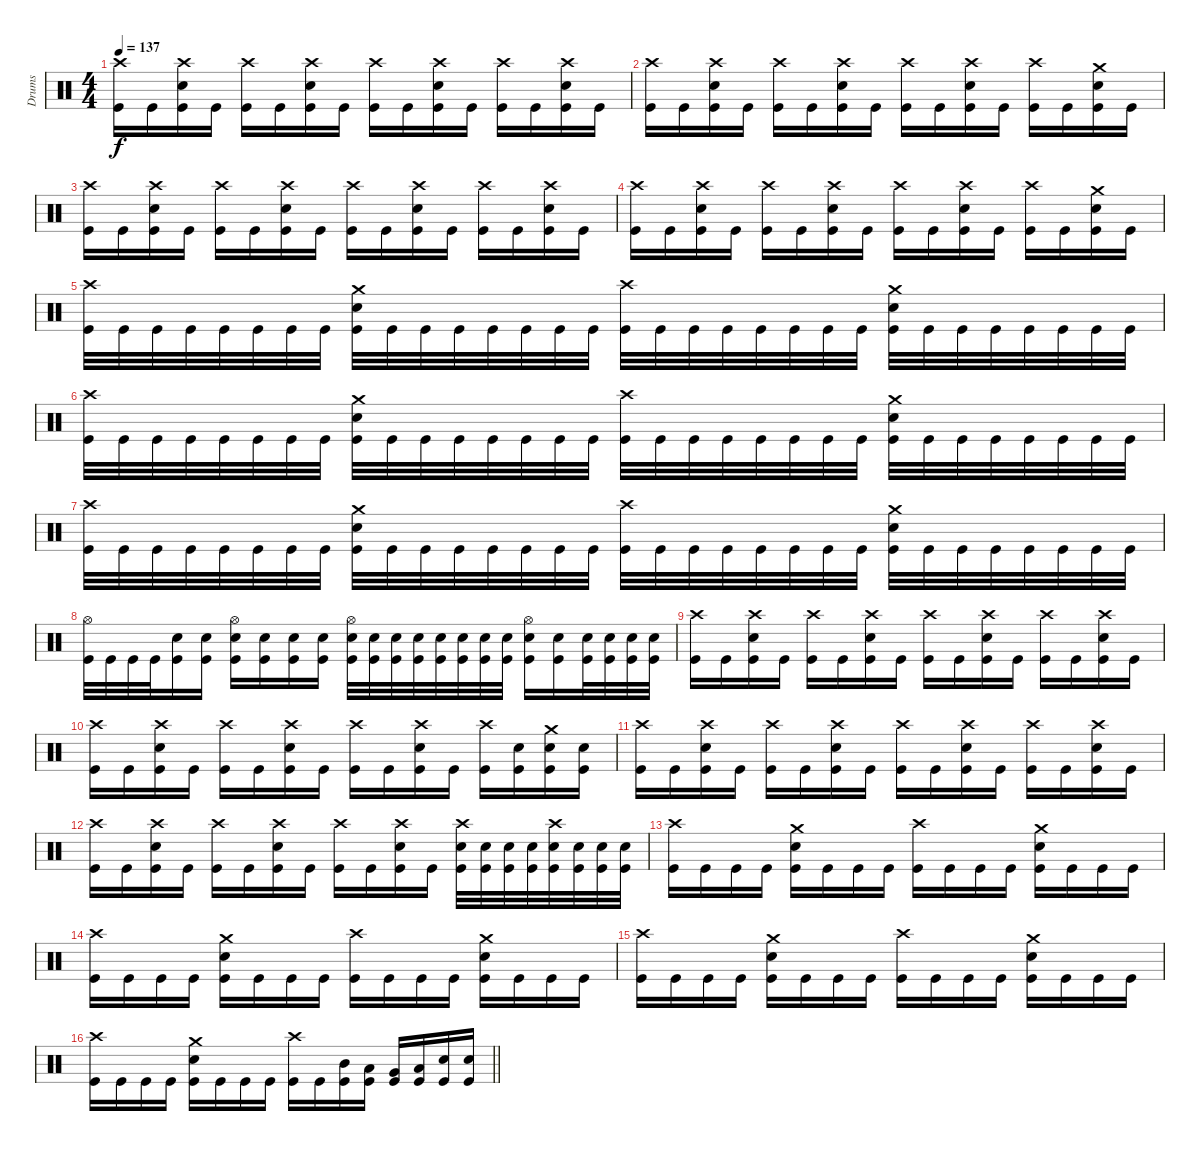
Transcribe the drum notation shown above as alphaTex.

\track ("Drums" "Drums") {instrument percussion}
\staff
\articulation defaults
\ts (4 4)
\tempo 137
\clef neutral
\ks c
("Crash high (hit)" "Kick (hit)").16{dy f} "Kick (hit)".16 ("Crash high (hit)" "Electric Snare (hit)" "Kick (hit)").16 "Kick (hit)".16 ("Crash high (hit)" "Kick (hit)").16 "Kick (hit)".16 ("Crash high (hit)" "Electric Snare (hit)" "Kick (hit)").16 "Kick (hit)".16 ("Crash high (hit)" "Kick (hit)").16 "Kick (hit)".16 ("Crash high (hit)" "Electric Snare (hit)" "Kick (hit)").16 "Kick (hit)".16 ("Crash high (hit)" "Kick (hit)").16 "Kick (hit)".16 ("Crash high (hit)" "Electric Snare (hit)" "Kick (hit)").16 "Kick (hit)".16 |
("Crash high (hit)" "Kick (hit)").16 "Kick (hit)".16 ("Crash high (hit)" "Electric Snare (hit)" "Kick (hit)").16 "Kick (hit)".16 ("Crash high (hit)" "Kick (hit)").16 "Kick (hit)".16 ("Crash high (hit)" "Electric Snare (hit)" "Kick (hit)").16 "Kick (hit)".16 ("Crash high (hit)" "Kick (hit)").16 "Kick (hit)".16 ("Crash high (hit)" "Electric Snare (hit)" "Kick (hit)").16 "Kick (hit)".16 ("Crash high (hit)" "Kick (hit)").16 "Kick (hit)".16 ("Crash medium (hit)" "Electric Snare (hit)" "Kick (hit)").16 "Kick (hit)".16 |
("Crash high (hit)" "Kick (hit)").16 "Kick (hit)".16 ("Crash high (hit)" "Electric Snare (hit)" "Kick (hit)").16 "Kick (hit)".16 ("Crash high (hit)" "Kick (hit)").16 "Kick (hit)".16 ("Crash high (hit)" "Electric Snare (hit)" "Kick (hit)").16 "Kick (hit)".16 ("Crash high (hit)" "Kick (hit)").16 "Kick (hit)".16 ("Crash high (hit)" "Electric Snare (hit)" "Kick (hit)").16 "Kick (hit)".16 ("Crash high (hit)" "Kick (hit)").16 "Kick (hit)".16 ("Crash high (hit)" "Electric Snare (hit)" "Kick (hit)").16 "Kick (hit)".16 |
("Crash high (hit)" "Kick (hit)").16 "Kick (hit)".16 ("Crash high (hit)" "Electric Snare (hit)" "Kick (hit)").16 "Kick (hit)".16 ("Crash high (hit)" "Kick (hit)").16 "Kick (hit)".16 ("Crash high (hit)" "Electric Snare (hit)" "Kick (hit)").16 "Kick (hit)".16 ("Crash high (hit)" "Kick (hit)").16 "Kick (hit)".16 ("Crash high (hit)" "Electric Snare (hit)" "Kick (hit)").16 "Kick (hit)".16 ("Crash high (hit)" "Kick (hit)").16 "Kick (hit)".16 ("Crash medium (hit)" "Electric Snare (hit)" "Kick (hit)").16 "Kick (hit)".16 |
("Crash high (hit)" "Kick (hit)").32 "Kick (hit)".32 "Kick (hit)".32 "Kick (hit)".32 "Kick (hit)".32 "Kick (hit)".32 "Kick (hit)".32 "Kick (hit)".32 ("Crash medium (hit)" "Electric Snare (hit)" "Kick (hit)").32 "Kick (hit)".32 "Kick (hit)".32 "Kick (hit)".32 "Kick (hit)".32 "Kick (hit)".32 "Kick (hit)".32 "Kick (hit)".32 ("Crash high (hit)" "Kick (hit)").32 "Kick (hit)".32 "Kick (hit)".32 "Kick (hit)".32 "Kick (hit)".32 "Kick (hit)".32 "Kick (hit)".32 "Kick (hit)".32 ("Crash medium (hit)" "Electric Snare (hit)" "Kick (hit)").32 "Kick (hit)".32 "Kick (hit)".32 "Kick (hit)".32 "Kick (hit)".32 "Kick (hit)".32 "Kick (hit)".32 "Kick (hit)".32 |
("Crash high (hit)" "Kick (hit)").32 "Kick (hit)".32 "Kick (hit)".32 "Kick (hit)".32 "Kick (hit)".32 "Kick (hit)".32 "Kick (hit)".32 "Kick (hit)".32 ("Crash medium (hit)" "Electric Snare (hit)" "Kick (hit)").32 "Kick (hit)".32 "Kick (hit)".32 "Kick (hit)".32 "Kick (hit)".32 "Kick (hit)".32 "Kick (hit)".32 "Kick (hit)".32 ("Crash high (hit)" "Kick (hit)").32 "Kick (hit)".32 "Kick (hit)".32 "Kick (hit)".32 "Kick (hit)".32 "Kick (hit)".32 "Kick (hit)".32 "Kick (hit)".32 ("Crash medium (hit)" "Electric Snare (hit)" "Kick (hit)").32 "Kick (hit)".32 "Kick (hit)".32 "Kick (hit)".32 "Kick (hit)".32 "Kick (hit)".32 "Kick (hit)".32 "Kick (hit)".32 |
("Crash high (hit)" "Kick (hit)").32 "Kick (hit)".32 "Kick (hit)".32 "Kick (hit)".32 "Kick (hit)".32 "Kick (hit)".32 "Kick (hit)".32 "Kick (hit)".32 ("Crash medium (hit)" "Electric Snare (hit)" "Kick (hit)").32 "Kick (hit)".32 "Kick (hit)".32 "Kick (hit)".32 "Kick (hit)".32 "Kick (hit)".32 "Kick (hit)".32 "Kick (hit)".32 ("Crash high (hit)" "Kick (hit)").32 "Kick (hit)".32 "Kick (hit)".32 "Kick (hit)".32 "Kick (hit)".32 "Kick (hit)".32 "Kick (hit)".32 "Kick (hit)".32 ("Crash medium (hit)" "Electric Snare (hit)" "Kick (hit)").32 "Kick (hit)".32 "Kick (hit)".32 "Kick (hit)".32 "Kick (hit)".32 "Kick (hit)".32 "Kick (hit)".32 "Kick (hit)".32 |
("Hi-Hat (open)" "Kick (hit)").32 "Kick (hit)".32 "Kick (hit)".32 "Kick (hit)".32 ("Electric Snare (hit)" "Kick (hit)").16 ("Electric Snare (hit)" "Kick (hit)").16 ("Hi-Hat (open)" "Electric Snare (hit)" "Kick (hit)").16 ("Electric Snare (hit)" "Kick (hit)").16 ("Electric Snare (hit)" "Kick (hit)").16 ("Electric Snare (hit)" "Kick (hit)").16 ("Hi-Hat (open)" "Electric Snare (hit)" "Kick (hit)").32 ("Electric Snare (hit)" "Kick (hit)").32 ("Electric Snare (hit)" "Kick (hit)").32 ("Electric Snare (hit)" "Kick (hit)").32 ("Electric Snare (hit)" "Kick (hit)").32 ("Electric Snare (hit)" "Kick (hit)").32 ("Electric Snare (hit)" "Kick (hit)").32 ("Electric Snare (hit)" "Kick (hit)").32 ("Hi-Hat (open)" "Electric Snare (hit)" "Kick (hit)").16 ("Electric Snare (hit)" "Kick (hit)").16 ("Electric Snare (hit)" "Kick (hit)").32 ("Electric Snare (hit)" "Kick (hit)").32 ("Electric Snare (hit)" "Kick (hit)").32 ("Electric Snare (hit)" "Kick (hit)").32 |
("Crash high (hit)" "Kick (hit)").16 "Kick (hit)".16 ("Crash high (hit)" "Electric Snare (hit)" "Kick (hit)").16 "Kick (hit)".16 ("Crash high (hit)" "Kick (hit)").16 "Kick (hit)".16 ("Crash high (hit)" "Electric Snare (hit)" "Kick (hit)").16 "Kick (hit)".16 ("Crash high (hit)" "Kick (hit)").16 "Kick (hit)".16 ("Crash high (hit)" "Electric Snare (hit)" "Kick (hit)").16 "Kick (hit)".16 ("Crash high (hit)" "Kick (hit)").16 "Kick (hit)".16 ("Crash high (hit)" "Electric Snare (hit)" "Kick (hit)").16 "Kick (hit)".16 |
("Crash high (hit)" "Kick (hit)").16 "Kick (hit)".16 ("Crash high (hit)" "Electric Snare (hit)" "Kick (hit)").16 "Kick (hit)".16 ("Crash high (hit)" "Kick (hit)").16 "Kick (hit)".16 ("Crash high (hit)" "Electric Snare (hit)" "Kick (hit)").16 "Kick (hit)".16 ("Crash high (hit)" "Kick (hit)").16 "Kick (hit)".16 ("Crash high (hit)" "Electric Snare (hit)" "Kick (hit)").16 "Kick (hit)".16 ("Crash high (hit)" "Kick (hit)").16 ("Electric Snare (hit)" "Kick (hit)").16 ("Crash medium (hit)" "Electric Snare (hit)" "Kick (hit)").16 ("Electric Snare (hit)" "Kick (hit)").16 |
("Crash high (hit)" "Kick (hit)").16 "Kick (hit)".16 ("Crash high (hit)" "Electric Snare (hit)" "Kick (hit)").16 "Kick (hit)".16 ("Crash high (hit)" "Kick (hit)").16 "Kick (hit)".16 ("Crash high (hit)" "Electric Snare (hit)" "Kick (hit)").16 "Kick (hit)".16 ("Crash high (hit)" "Kick (hit)").16 "Kick (hit)".16 ("Crash high (hit)" "Electric Snare (hit)" "Kick (hit)").16 "Kick (hit)".16 ("Crash high (hit)" "Kick (hit)").16 "Kick (hit)".16 ("Crash high (hit)" "Electric Snare (hit)" "Kick (hit)").16 "Kick (hit)".16 |
("Crash high (hit)" "Kick (hit)").16 "Kick (hit)".16 ("Crash high (hit)" "Electric Snare (hit)" "Kick (hit)").16 "Kick (hit)".16 ("Crash high (hit)" "Kick (hit)").16 "Kick (hit)".16 ("Crash high (hit)" "Electric Snare (hit)" "Kick (hit)").16 "Kick (hit)".16 ("Crash high (hit)" "Kick (hit)").16 "Kick (hit)".16 ("Crash high (hit)" "Electric Snare (hit)" "Kick (hit)").16 "Kick (hit)".16 ("Crash high (hit)" "Electric Snare (hit)" "Kick (hit)").32 ("Electric Snare (hit)" "Kick (hit)").32 ("Electric Snare (hit)" "Kick (hit)").32 ("Electric Snare (hit)" "Kick (hit)").32 ("Crash high (hit)" "Electric Snare (hit)" "Kick (hit)").32 ("Electric Snare (hit)" "Kick (hit)").32 ("Electric Snare (hit)" "Kick (hit)").32 ("Electric Snare (hit)" "Kick (hit)").32 |
("Crash high (hit)" "Kick (hit)").16 "Kick (hit)".16 "Kick (hit)".16 "Kick (hit)".16 ("Crash medium (hit)" "Electric Snare (hit)" "Kick (hit)").16 "Kick (hit)".16 "Kick (hit)".16 "Kick (hit)".16 ("Crash high (hit)" "Kick (hit)").16 "Kick (hit)".16 "Kick (hit)".16 "Kick (hit)".16 ("Crash medium (hit)" "Electric Snare (hit)" "Kick (hit)").16 "Kick (hit)".16 "Kick (hit)".16 "Kick (hit)".16 |
("Crash high (hit)" "Kick (hit)").16 "Kick (hit)".16 "Kick (hit)".16 "Kick (hit)".16 ("Crash medium (hit)" "Electric Snare (hit)" "Kick (hit)").16 "Kick (hit)".16 "Kick (hit)".16 "Kick (hit)".16 ("Crash high (hit)" "Kick (hit)").16 "Kick (hit)".16 "Kick (hit)".16 "Kick (hit)".16 ("Crash medium (hit)" "Electric Snare (hit)" "Kick (hit)").16 "Kick (hit)".16 "Kick (hit)".16 "Kick (hit)".16 |
("Crash high (hit)" "Kick (hit)").16 "Kick (hit)".16 "Kick (hit)".16 "Kick (hit)".16 ("Crash medium (hit)" "Electric Snare (hit)" "Kick (hit)").16 "Kick (hit)".16 "Kick (hit)".16 "Kick (hit)".16 ("Crash high (hit)" "Kick (hit)").16 "Kick (hit)".16 "Kick (hit)".16 "Kick (hit)".16 ("Crash medium (hit)" "Electric Snare (hit)" "Kick (hit)").16 "Kick (hit)".16 "Kick (hit)".16 "Kick (hit)".16 |
\barLineRight lightlight
("Crash high (hit)" "Kick (hit)").16 "Kick (hit)".16 "Kick (hit)".16 "Kick (hit)".16 ("Crash medium (hit)" "Electric Snare (hit)" "Kick (hit)").16 "Kick (hit)".16 "Kick (hit)".16 "Kick (hit)".16 ("Crash high (hit)" "Kick (hit)").16 "Kick (hit)".16 ("Mid Tom (hit)" "Kick (hit)").16 ("Low Tom (hit)" "Kick (hit)").16 ("Very Low Tom (hit)" "Kick (hit)").16 ("Low Floor Tom (hit)" "Kick (hit)").16 ("Electric Snare (hit)" "Kick (hit)").16 ("Electric Snare (hit)" "Kick (hit)").16
